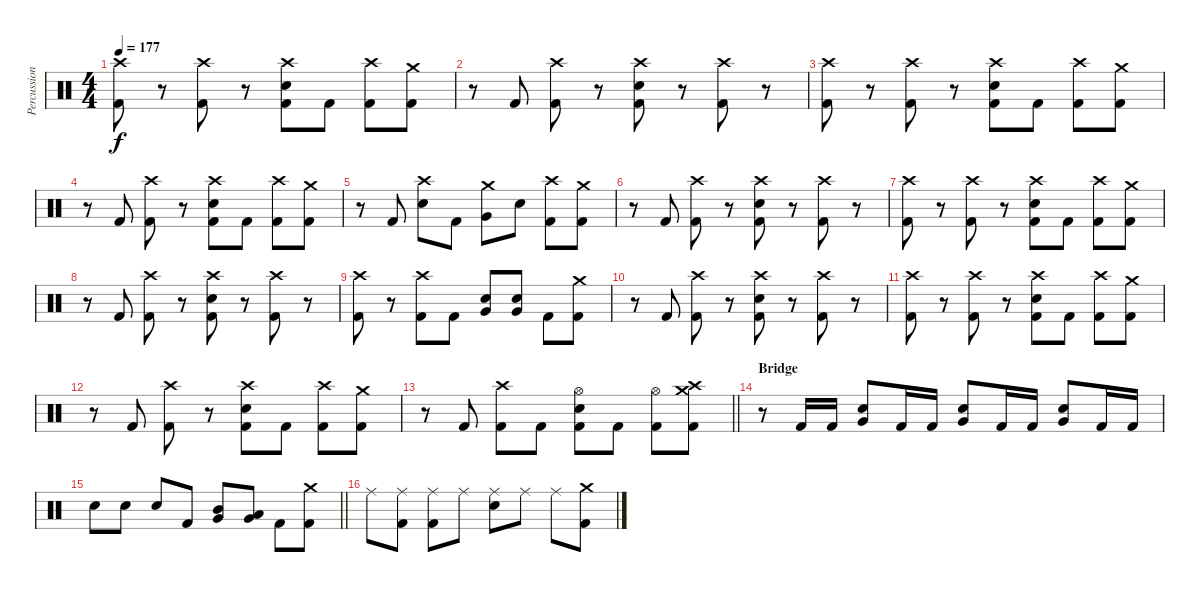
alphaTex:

\track ("Percussion" "Percussion") {instrument percussion}
\staff {score}
\articulation defaults
\ts (4 4)
\tempo 177
\clef neutral
\ks c
("Crash high (hit)" "Kick (hit) 2").8{dy f} r.8 ("Crash high (hit)" "Kick (hit) 2").8 r.8 ("Crash high (hit)" "Snare (hit) 2" "Kick (hit) 2").8 "Kick (hit) 2".8 ("Crash high (hit)" "Kick (hit) 2").8 ("Crash medium (hit)" "Kick (hit) 2").8 |
r.8 "Kick (hit) 2".8 ("Crash high (hit)" "Kick (hit) 2").8 r.8 ("Crash high (hit)" "Snare (hit) 2" "Kick (hit) 2").8 r.8 ("Crash high (hit)" "Kick (hit) 2").8 r.8 |
("Crash high (hit)" "Kick (hit) 2").8 r.8 ("Crash high (hit)" "Kick (hit) 2").8 r.8 ("Crash high (hit)" "Snare (hit) 2" "Kick (hit) 2").8 "Kick (hit) 2".8 ("Crash high (hit)" "Kick (hit) 2").8 ("Crash medium (hit)" "Kick (hit) 2").8 |
r.8 "Kick (hit) 2".8 ("Crash high (hit)" "Kick (hit) 2").8 r.8 ("Crash high (hit)" "Snare (hit) 2" "Kick (hit) 2").8 "Kick (hit) 2".8 ("Crash high (hit)" "Kick (hit) 2").8 ("Crash medium (hit)" "Kick (hit) 2").8 |
r.8 "Kick (hit) 2".8 ("Crash high (hit)" "Snare (hit) 2").8 "Kick (hit) 2".8 ("Crash medium (hit)" "Very Low Tom (hit)").8 "Snare (hit) 2".8 ("Crash high (hit)" "Kick (hit) 2").8 ("Crash medium (hit)" "Kick (hit) 2").8 |
r.8 "Kick (hit) 2".8 ("Crash high (hit)" "Kick (hit) 2").8 r.8 ("Crash high (hit)" "Snare (hit) 2" "Kick (hit) 2").8 r.8 ("Crash high (hit)" "Kick (hit) 2").8 r.8 |
("Crash high (hit)" "Kick (hit) 2").8 r.8 ("Crash high (hit)" "Kick (hit) 2").8 r.8 ("Crash high (hit)" "Snare (hit) 2" "Kick (hit) 2").8 "Kick (hit) 2".8 ("Crash high (hit)" "Kick (hit) 2").8 ("Crash medium (hit)" "Kick (hit) 2").8 |
r.8 "Kick (hit) 2".8 ("Crash high (hit)" "Kick (hit) 2").8 r.8 ("Crash high (hit)" "Snare (hit) 2" "Kick (hit) 2").8 r.8 ("Crash high (hit)" "Kick (hit) 2").8 r.8 |
("Crash high (hit)" "Kick (hit) 2").8 r.8 ("Crash high (hit)" "Kick (hit) 2").8 "Kick (hit) 2".8 ("Very Low Tom (hit)" "Snare (hit) 2").8 ("Very Low Tom (hit)" "Snare (hit) 2").8 "Kick (hit) 2".8 ("Crash medium (hit)" "Kick (hit) 2").8 |
r.8 "Kick (hit) 2".8 ("Crash high (hit)" "Kick (hit) 2").8 r.8 ("Crash high (hit)" "Snare (hit) 2" "Kick (hit) 2").8 r.8 ("Crash high (hit)" "Kick (hit) 2").8 r.8 |
("Crash high (hit)" "Kick (hit) 2").8 r.8 ("Crash high (hit)" "Kick (hit) 2").8 r.8 ("Crash high (hit)" "Snare (hit) 2" "Kick (hit) 2").8 "Kick (hit) 2".8 ("Crash high (hit)" "Kick (hit) 2").8 ("Crash medium (hit)" "Kick (hit) 2").8 |
r.8 "Kick (hit) 2".8 ("Crash high (hit)" "Kick (hit) 2").8 r.8 ("Crash high (hit)" "Snare (hit) 2" "Kick (hit) 2").8 "Kick (hit) 2".8 ("Crash high (hit)" "Kick (hit) 2").8 ("Crash medium (hit)" "Kick (hit) 2").8 |
\barLineRight lightlight
r.8 "Kick (hit) 2".8 ("Crash high (hit)" "Kick (hit) 2").8 "Kick (hit) 2".8 ("Hi-Hat (open)" "Snare (hit) 2" "Kick (hit) 2").8 "Kick (hit) 2".8 ("Hi-Hat (open)" "Kick (hit) 2").8 ("Crash high (hit)" "Crash medium (hit)" "Kick (hit) 2").8 |
\section ("" "Bridge")
r.8 "Kick (hit) 2".16 "Kick (hit) 2".16 ("Very Low Tom (hit)" "Snare (hit) 2").8 "Kick (hit) 2".16 "Kick (hit) 2".16 ("Very Low Tom (hit)" "Snare (hit) 2").8 "Kick (hit) 2".16 "Kick (hit) 2".16 ("Very Low Tom (hit)" "Snare (hit) 2").8 "Kick (hit) 2".16 "Kick (hit) 2".16 |
\barLineRight lightlight "Snare (hit) 2".8 "Snare (hit) 2".8 "Snare (hit) 2".8 "Kick (hit) 2".8
("Mid Tom (hit)" "Very Low Tom (hit)").8 ("Low Tom (hit)" "Very Low Tom (hit)").8 "Kick (hit) 2".8 ("Crash medium (hit)" "Kick (hit) 2").8 |
\section ("" "")
"Ride (middle)".8 ("Ride (middle)" "Kick (hit) 2").8 ("Ride (middle)" "Kick (hit) 2").8 "Ride (middle)".8 ("Ride (middle)" "Snare (hit) 2").8 "Ride (middle)".8 "Ride (middle)".8 ("Crash medium (hit)" "Kick (hit) 2").8
